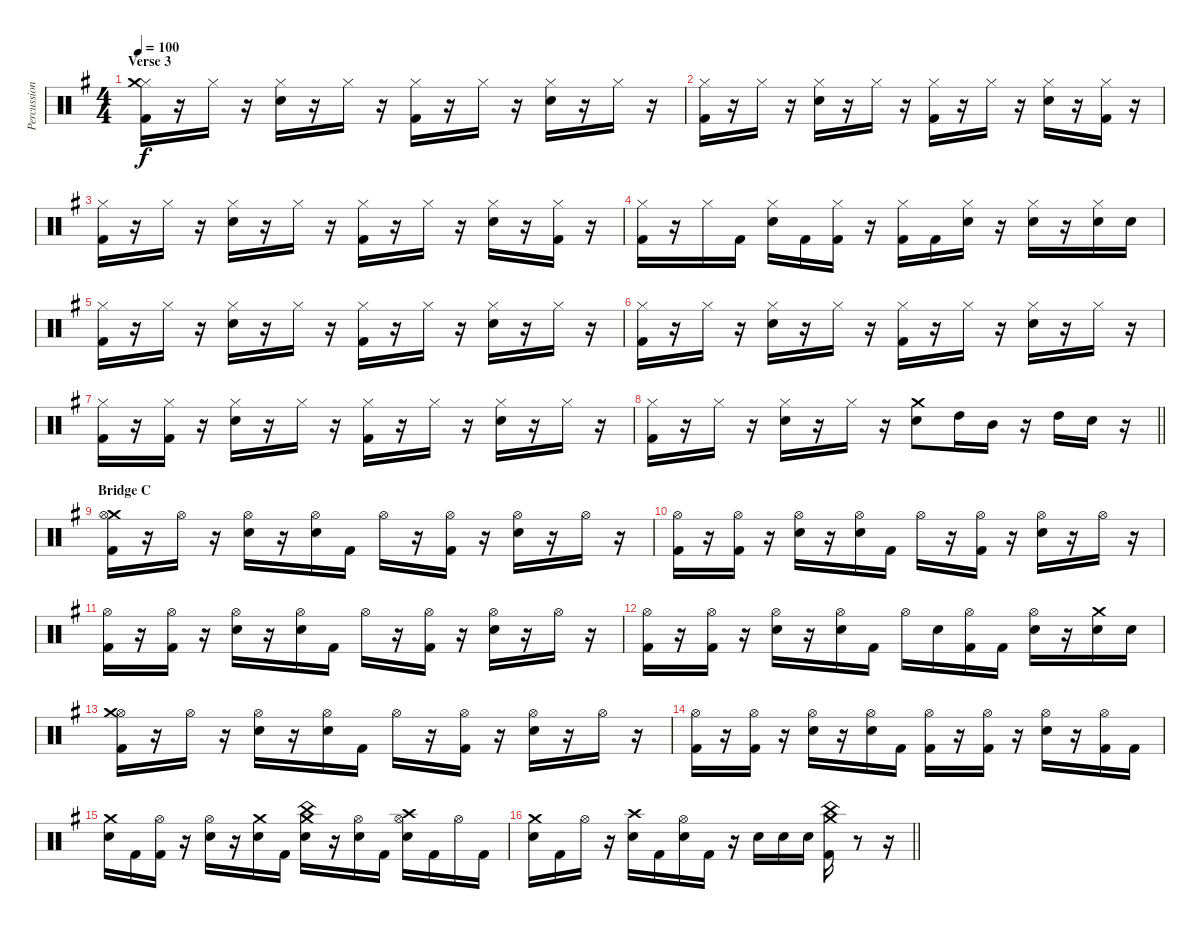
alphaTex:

\track ("Percussion" "Percussion") {instrument percussion}
\staff {score}
\articulation defaults
\ts (4 4)
\section ("" "Verse 3")
\tempo 100
\clef neutral
\ks g
("Hi-Hat (closed)" "Crash medium (hit)" "Kick (hit) 2").16{dy f} r.16 "Hi-Hat (closed)".16 r.16 ("Hi-Hat (closed)" "Snare (hit) 2").16 r.16 "Hi-Hat (closed)".16 r.16 ("Hi-Hat (closed)" "Kick (hit) 2").16 r.16 "Hi-Hat (closed)".16 r.16 ("Hi-Hat (closed)" "Snare (hit) 2").16 r.16 "Hi-Hat (closed)".16 r.16 |
("Hi-Hat (closed)" "Kick (hit) 2").16 r.16 "Hi-Hat (closed)".16 r.16 ("Hi-Hat (closed)" "Snare (hit) 2").16 r.16 "Hi-Hat (closed)".16 r.16 ("Hi-Hat (closed)" "Kick (hit) 2").16 r.16 "Hi-Hat (closed)".16 r.16 ("Hi-Hat (closed)" "Snare (hit) 2").16 r.16 ("Hi-Hat (closed)" "Kick (hit) 2").16 r.16 |
("Hi-Hat (closed)" "Kick (hit) 2").16 r.16 "Hi-Hat (closed)".16 r.16 ("Hi-Hat (closed)" "Snare (hit) 2").16 r.16 "Hi-Hat (closed)".16 r.16 ("Hi-Hat (closed)" "Kick (hit) 2").16 r.16 "Hi-Hat (closed)".16 r.16 ("Hi-Hat (closed)" "Snare (hit) 2").16 r.16 ("Hi-Hat (closed)" "Kick (hit) 2").16 r.16 |
("Hi-Hat (closed)" "Kick (hit) 2").16 r.16 "Hi-Hat (closed)".16 "Kick (hit) 2".16 ("Hi-Hat (closed)" "Snare (hit) 2").16 "Kick (hit) 2".16 ("Hi-Hat (closed)" "Kick (hit) 2").16 r.16 ("Hi-Hat (closed)" "Kick (hit) 2").16 "Kick (hit) 2".16 ("Hi-Hat (closed)" "Snare (hit) 2").16 r.16 ("Hi-Hat (closed)" "Snare (hit) 2").16 r.16 ("Hi-Hat (closed)" "Snare (hit) 2").16 "Snare (hit) 2".16 |
("Hi-Hat (closed)" "Kick (hit) 2").16 r.16 "Hi-Hat (closed)".16 r.16 ("Hi-Hat (closed)" "Snare (hit) 2").16 r.16 "Hi-Hat (closed)".16 r.16 ("Hi-Hat (closed)" "Kick (hit) 2").16 r.16 "Hi-Hat (closed)".16 r.16 ("Hi-Hat (closed)" "Snare (hit) 2").16 r.16 "Hi-Hat (closed)".16 r.16 |
("Hi-Hat (closed)" "Kick (hit) 2").16 r.16 "Hi-Hat (closed)".16 r.16 ("Hi-Hat (closed)" "Snare (hit) 2").16 r.16 "Hi-Hat (closed)".16 r.16 ("Hi-Hat (closed)" "Kick (hit) 2").16 r.16 "Hi-Hat (closed)".16 r.16 ("Hi-Hat (closed)" "Snare (hit) 2").16 r.16 "Hi-Hat (closed)".16 r.16 |
("Hi-Hat (closed)" "Kick (hit) 2").16 r.16 ("Hi-Hat (closed)" "Kick (hit) 2").16 r.16 ("Hi-Hat (closed)" "Snare (hit) 2").16 r.16 "Hi-Hat (closed)".16 r.16 ("Hi-Hat (closed)" "Kick (hit) 2").16 r.16 "Hi-Hat (closed)".16 r.16 ("Hi-Hat (closed)" "Snare (hit) 2").16 r.16 "Hi-Hat (closed)".16 r.16 |
\barLineRight lightlight
("Hi-Hat (closed)" "Kick (hit) 2").16 r.16 "Hi-Hat (closed)".16 r.16 ("Hi-Hat (closed)" "Snare (hit) 2").16 r.16 "Hi-Hat (closed)".16 r.16 ("Crash medium (hit)" "Snare (hit) 2").8 "High Tom (hit)".16 "Mid Tom (hit)".16 r.16 "High Tom (hit)".16 "Snare (hit) 2".16 r.16 |
\section ("" "Bridge C")
("Crash medium (hit)" "Hi-Hat (open)" "Kick (hit) 2").16 r.16 "Hi-Hat (open)".16 r.16 ("Hi-Hat (open)" "Snare (hit) 2").16 r.16 ("Hi-Hat (open)" "Snare (hit) 2").16 "Kick (hit) 2".16 "Hi-Hat (open)".16 r.16 ("Hi-Hat (open)" "Kick (hit) 2").16 r.16 ("Hi-Hat (open)" "Snare (hit) 2").16 r.16 "Hi-Hat (open)".16 r.16 |
("Hi-Hat (open)" "Kick (hit) 2").16 r.16 ("Hi-Hat (open)" "Kick (hit) 2").16 r.16 ("Hi-Hat (open)" "Snare (hit) 2").16 r.16 ("Hi-Hat (open)" "Snare (hit) 2").16 "Kick (hit) 2".16 "Hi-Hat (open)".16 r.16 ("Hi-Hat (open)" "Kick (hit) 2").16 r.16 ("Hi-Hat (open)" "Snare (hit) 2").16 r.16 "Hi-Hat (open)".16 r.16 |
("Hi-Hat (open)" "Kick (hit) 2").16 r.16 ("Hi-Hat (open)" "Kick (hit) 2").16 r.16 ("Hi-Hat (open)" "Snare (hit) 2").16 r.16 ("Hi-Hat (open)" "Snare (hit) 2").16 "Kick (hit) 2".16 "Hi-Hat (open)".16 r.16 ("Hi-Hat (open)" "Kick (hit) 2").16 r.16 ("Hi-Hat (open)" "Snare (hit) 2").16 r.16 "Hi-Hat (open)".16 r.16 |
("Hi-Hat (open)" "Kick (hit) 2").16 r.16 ("Hi-Hat (open)" "Kick (hit) 2").16 r.16 ("Hi-Hat (open)" "Snare (hit) 2").16 r.16 ("Hi-Hat (open)" "Snare (hit) 2").16 "Kick (hit) 2".16 "Hi-Hat (open)".16 "Snare (hit) 2".16 ("Hi-Hat (open)" "Kick (hit) 2").16 "Kick (hit) 2".16 ("Hi-Hat (open)" "Snare (hit) 2").16 r.16 ("Crash medium (hit)" "Snare (hit) 2").16 "Snare (hit) 2".16 |
("Hi-Hat (open)" "Crash medium (hit)" "Kick (hit) 2").16 r.16 "Hi-Hat (open)".16 r.16 ("Hi-Hat (open)" "Snare (hit) 2").16 r.16 ("Hi-Hat (open)" "Snare (hit) 2").16 "Kick (hit) 2".16 "Hi-Hat (open)".16 r.16 ("Hi-Hat (open)" "Kick (hit) 2").16 r.16 ("Hi-Hat (open)" "Snare (hit) 2").16 r.16 "Hi-Hat (open)".16 r.16 |
("Hi-Hat (open)" "Kick (hit) 2").16 r.16 ("Hi-Hat (open)" "Kick (hit) 2").16 r.16 ("Hi-Hat (open)" "Snare (hit) 2").16 r.16 ("Hi-Hat (open)" "Snare (hit) 2").16 "Kick (hit) 2".16 ("Hi-Hat (open)" "Kick (hit) 2").16 r.16 ("Hi-Hat (open)" "Kick (hit) 2").16 r.16 ("Hi-Hat (open)" "Snare (hit) 2").16 r.16 ("Hi-Hat (open)" "Kick (hit) 2").16 "Kick (hit) 2".16 |
("Crash medium (hit)" "Snare (hit) 2").16 "Kick (hit) 2".16 ("Hi-Hat (open)" "Kick (hit) 2").16 r.16 ("Hi-Hat (open)" "Snare (hit) 2").16 r.16 ("Crash medium (hit)" "Snare (hit) 2").16 "Kick (hit) 2".16 ("China (hit)" "Crash medium (hit)" "Snare (hit) 2").16 r.16 ("Hi-Hat (open)" "Snare (hit) 2").16 "Kick (hit) 2".16 ("Hi-Hat (open)" "Crash high (hit)" "Snare (hit) 2").16 "Kick (hit) 2".16 "Hi-Hat (open)".16 "Kick (hit) 2".16 |
\barLineRight lightlight
("Crash medium (hit)" "Snare (hit) 2").16 "Kick (hit) 2".16 "Hi-Hat (open)".16 r.16 ("Crash high (hit)" "Snare (hit) 2").16 "Kick (hit) 2".16 ("Hi-Hat (open)" "Snare (hit) 2").16 "Kick (hit) 2".16 r.16 "Snare (hit) 2".16 "Snare (hit) 2".16 "Snare (hit) 2".16 ("Crash medium (hit)" "China (hit)" "Kick (hit) 2").16 r.8 r.16
